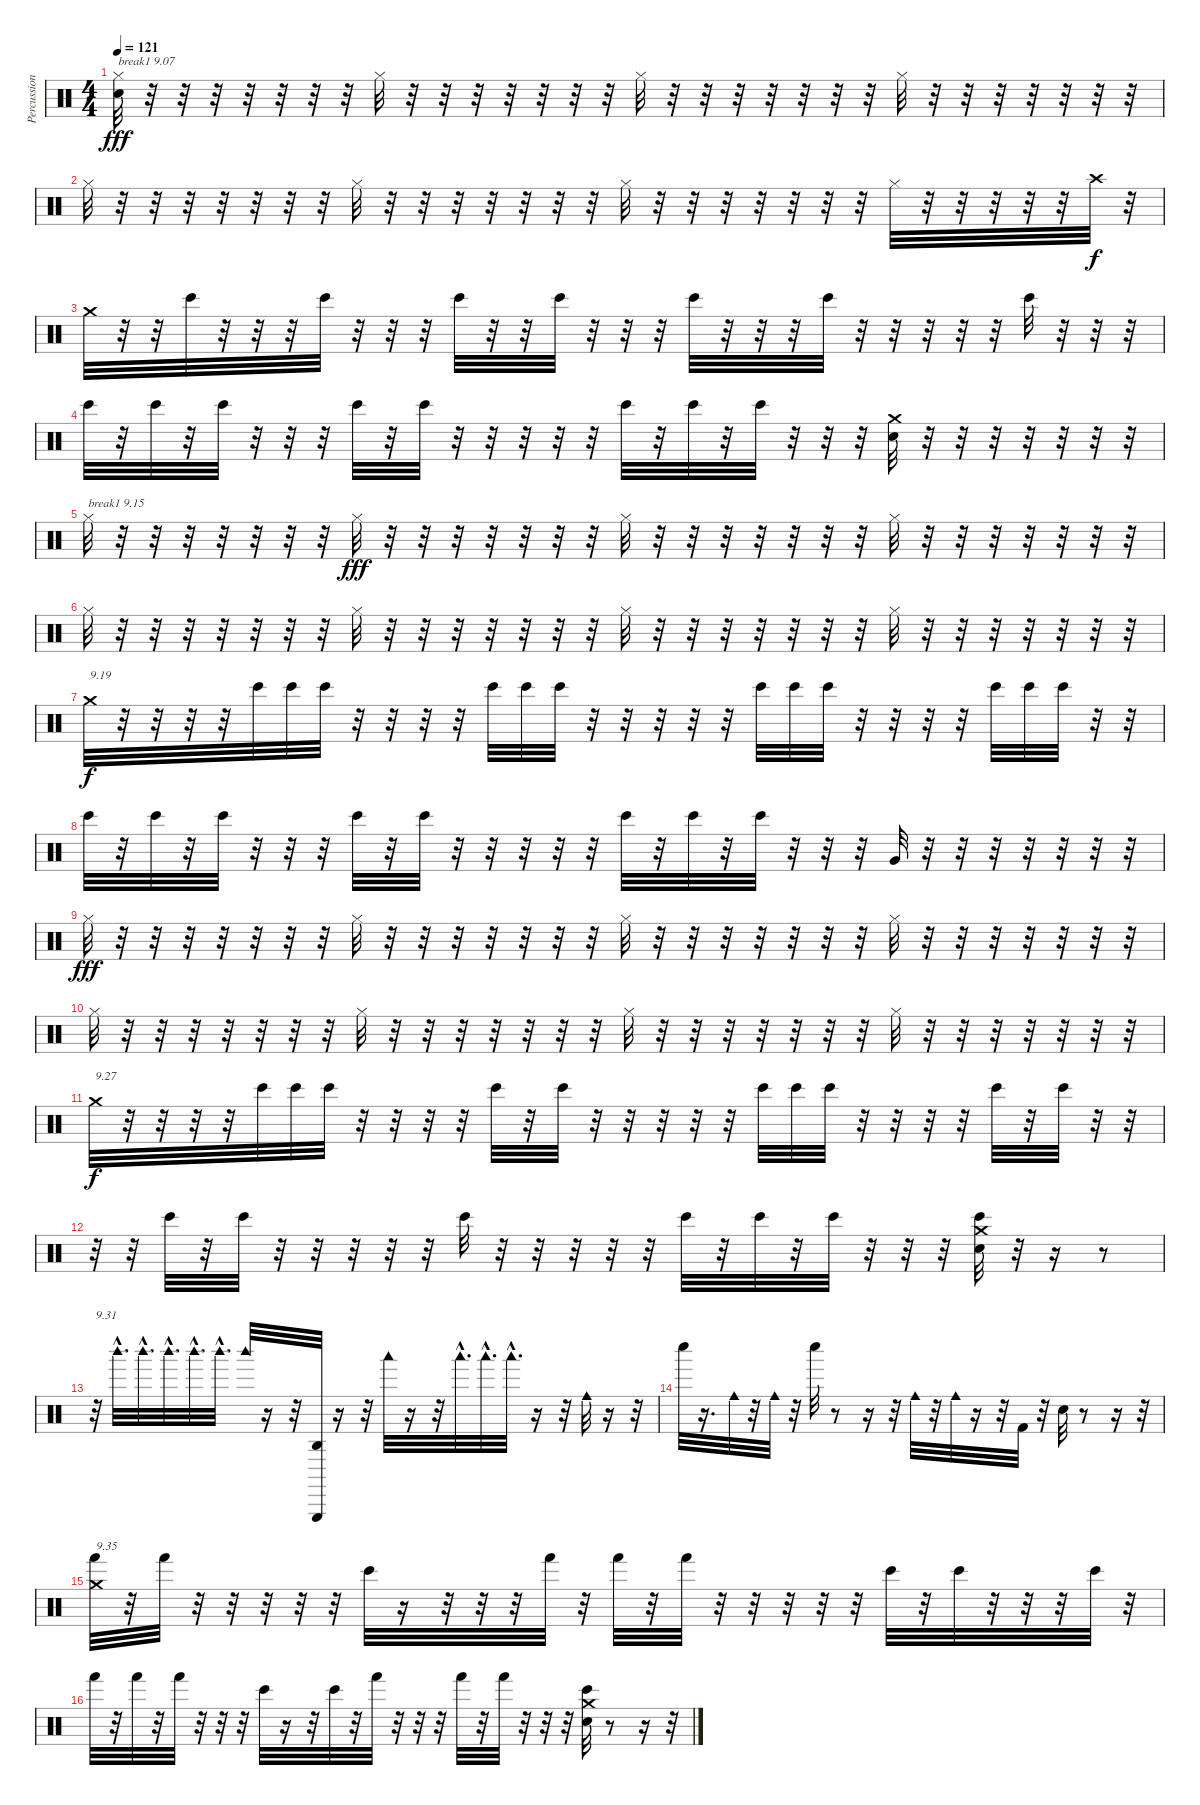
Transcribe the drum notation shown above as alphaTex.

\track ("Percussions" "Percussion") {instrument percussion}
\staff {score}
\articulation defaults
\ts (4 4)
\tempo 121
\clef neutral
\ks c
("Hi-Hat (closed)" "Electric Snare (hit)").32{txt "break1 9.07" dy fff} r.32 r.32 r.32 r.32 r.32 r.32 r.32 "Hi-Hat (closed)".32 r.32 r.32 r.32 r.32 r.32 r.32 r.32 "Hi-Hat (closed)".32 r.32 r.32 r.32 r.32 r.32 r.32 r.32 "Hi-Hat (closed)".32 r.32 r.32 r.32 r.32 r.32 r.32 r.32 |
"Hi-Hat (closed)".32 r.32 r.32 r.32 r.32 r.32 r.32 r.32 "Hi-Hat (closed)".32 r.32 r.32 r.32 r.32 r.32 r.32 r.32 "Hi-Hat (closed)".32 r.32 r.32 r.32 r.32 r.32 r.32 r.32 "Hi-Hat (closed)".32 r.32 r.32 r.32 r.32 r.32 "Crash high (hit)".32{dy f} r.32 |
"Crash medium (hit)".32 r.32 r.32 "Bongo High (hit)".32 r.32 r.32 r.32 "Bongo High (hit)".32 r.32 r.32 r.32 "Bongo High (hit)".32 r.32 r.32 "Bongo High (hit)".32 r.32 r.32 r.32 "Bongo High (hit)".32 r.32 r.32 r.32 "Bongo High (hit)".32 r.32 r.32 r.32 r.32 r.32 "Bongo High (hit)".32 r.32 r.32 r.32 |
"Bongo High (hit)".32 r.32 "Bongo High (hit)".32 r.32 "Bongo High (hit)".32 r.32 r.32 r.32 "Bongo High (hit)".32 r.32 "Bongo High (hit)".32 r.32 r.32 r.32 r.32 r.32 "Bongo High (hit)".32 r.32 "Bongo High (hit)".32 r.32 "Bongo High (hit)".32 r.32 r.32 r.32 ("Snare (hit) 2" "Crash medium (hit)").32 r.32 r.32 r.32 r.32 r.32 r.32 r.32 |
"Hi-Hat (closed)".32{txt "break1 9.15"} r.32 r.32 r.32 r.32 r.32 r.32 r.32 "Hi-Hat (closed)".32{dy fff} r.32 r.32 r.32 r.32 r.32 r.32 r.32 "Hi-Hat (closed)".32 r.32 r.32 r.32 r.32 r.32 r.32 r.32 "Hi-Hat (closed)".32 r.32 r.32 r.32 r.32 r.32 r.32 r.32 |
"Hi-Hat (closed)".32 r.32 r.32 r.32 r.32 r.32 r.32 r.32 "Hi-Hat (closed)".32 r.32 r.32 r.32 r.32 r.32 r.32 r.32 "Hi-Hat (closed)".32 r.32 r.32 r.32 r.32 r.32 r.32 r.32 "Hi-Hat (closed)".32 r.32 r.32 r.32 r.32 r.32 r.32 r.32 |
"Crash medium (hit)".32{txt "9.19" dy f} r.32 r.32 r.32 r.32 "Bongo High (hit)".32 "Bongo High (hit)".32 "Bongo High (hit)".32 r.32 r.32 r.32 r.32 "Bongo High (hit)".32 "Bongo High (hit)".32 "Bongo High (hit)".32 r.32 r.32 r.32 r.32 r.32 "Bongo High (hit)".32 "Bongo High (hit)".32 "Bongo High (hit)".32 r.32 r.32 r.32 r.32 "Bongo High (hit)".32 "Bongo High (hit)".32 "Bongo High (hit)".32 r.32 r.32 |
"Bongo High (hit)".32 r.32 "Bongo High (hit)".32 r.32 "Bongo High (hit)".32 r.32 r.32 r.32 "Bongo High (hit)".32 r.32 "Bongo High (hit)".32 r.32 r.32 r.32 r.32 r.32 "Bongo High (hit)".32 r.32 "Bongo High (hit)".32 r.32 "Bongo High (hit)".32 r.32 r.32 r.32 "Very Low Tom (hit)".32 r.32 r.32 r.32 r.32 r.32 r.32 r.32 |
"Hi-Hat (closed)".32{dy fff} r.32 r.32 r.32 r.32 r.32 r.32 r.32 "Hi-Hat (closed)".32 r.32 r.32 r.32 r.32 r.32 r.32 r.32 "Hi-Hat (closed)".32 r.32 r.32 r.32 r.32 r.32 r.32 r.32 "Hi-Hat (closed)".32 r.32 r.32 r.32 r.32 r.32 r.32 r.32 |
"Hi-Hat (closed)".32 r.32 r.32 r.32 r.32 r.32 r.32 r.32 "Hi-Hat (closed)".32 r.32 r.32 r.32 r.32 r.32 r.32 r.32 "Hi-Hat (closed)".32 r.32 r.32 r.32 r.32 r.32 r.32 r.32 "Hi-Hat (closed)".32 r.32 r.32 r.32 r.32 r.32 r.32 r.32 |
"Crash medium (hit)".32{txt "9.27" dy f} r.32 r.32 r.32 r.32 "Bongo High (hit)".32 "Bongo High (hit)".32 "Bongo High (hit)".32 r.32 r.32 r.32 r.32 "Bongo High (hit)".32 r.32 "Bongo High (hit)".32 r.32 r.32 r.32 r.32 r.32 "Bongo High (hit)".32 "Bongo High (hit)".32 "Bongo High (hit)".32 r.32 r.32 r.32 r.32 "Bongo High (hit)".32 r.32 "Bongo High (hit)".32 r.32 r.32 |
r.32 r.32 "Bongo High (hit)".32 r.32 "Bongo High (hit)".32 r.32 r.32 r.32 r.32 r.32 "Bongo High (hit)".32 r.32 r.32 r.32 r.32 r.32 "Bongo High (hit)".32 r.32 "Bongo High (hit)".32 r.32 "Bongo High (hit)".32 r.32 r.32 r.32 ("Crash medium (hit)" "Snare (hit) 2" "Bongo High (hit)").32 r.32 r.16 r.8 |
r.32{txt "9.31"} "Woodblock high (hit)"{hac}.32{d} "Woodblock high (hit)"{hac}.32{d} "Woodblock high (hit)"{hac}.32{d} "Woodblock high (hit)"{hac}.32{d} "Woodblock high (hit)"{hac}.32{d} "Woodblock high (hit)".32 r.16 r.32 ("Agogo high (hit)" "Triangle (hit)").32 r.16 r.32 "Woodblock low (hit)".32 r.16 r.32 "Woodblock low (hit)"{hac}.32{d} "Woodblock low (hit)"{hac}.32{d} "Woodblock low (hit)"{hac}.32{d} r.16 r.32 "Cowbell medium (hit)".32 r.16 r.32 |
"Whistle low (hit)".32 r.16{d} "Cowbell medium (hit)".32 r.32 "Cowbell medium (hit)".32 r.32 "Whistle low (hit)".32 r.8 r.16 r.32 "Cowbell medium (hit)".32 r.32 "Cowbell medium (hit)".32 r.16 r.32 "Kick (hit) 2".32 r.32 "Electric Snare (hit)".32 r.8 r.16 r.32 |
("Crash medium (hit)" "Hand (hit)").32{txt "9.35"} r.32 "Hand (hit)".32 r.32 r.32 r.32 r.32 r.32 "Bongo High (hit)".32 r.16 r.32 r.32 r.32 "Hand (hit)".32 r.32 "Hand (hit)".32 r.32 "Hand (hit)".32 r.32 r.32 r.32 r.32 r.32 "Bongo High (hit)".32 r.32 "Bongo High (hit)".32 r.32 r.32 r.32 "Bongo High (hit)".32 r.32 |
"Hand (hit)".32 r.32 "Hand (hit)".32 r.32 "Hand (hit)".32 r.32 r.32 r.32 "Bongo High (hit)".32 r.16 r.32 "Bongo High (hit)".32 r.32 "Hand (hit)".32 r.32 r.32 r.32 "Hand (hit)".32 r.32 "Hand (hit)".32 r.32 r.32 r.32 ("Crash medium (hit)" "Snare (hit) 2" "Bongo High (hit)").32 r.8 r.16 r.32
